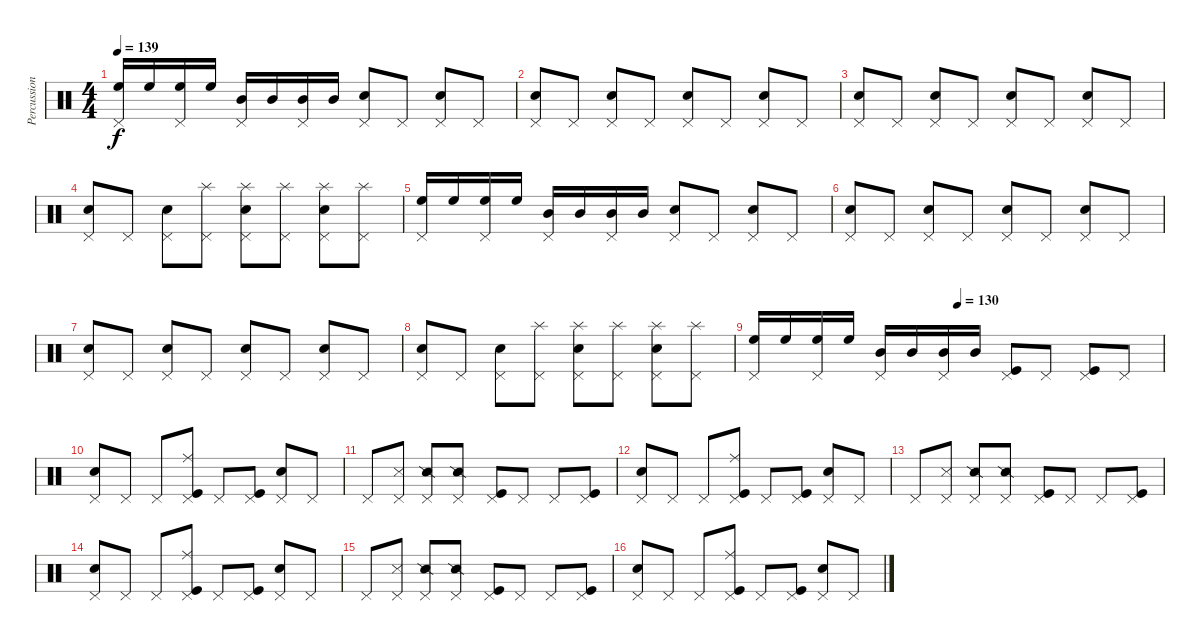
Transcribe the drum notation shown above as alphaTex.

\track ("Percussion" "Percussion") {instrument percussion}
\staff {score}
\articulation defaults
\ts (4 4)
\tempo 139
\clef neutral
\ks c
("High Floor Tom (hit)" "Pedal Hi-Hat (hit)").16{dy f} "High Floor Tom (hit)".16 ("High Floor Tom (hit)" "Pedal Hi-Hat (hit)").16 "High Floor Tom (hit)".16 ("Mid Tom (hit)" "Pedal Hi-Hat (hit)").16 "Mid Tom (hit)".16 ("Mid Tom (hit)" "Pedal Hi-Hat (hit)").16 "Mid Tom (hit)".16 ("Electric Snare (hit)" "Pedal Hi-Hat (hit)").8 "Pedal Hi-Hat (hit)".8 ("Electric Snare (hit)" "Pedal Hi-Hat (hit)").8 "Pedal Hi-Hat (hit)".8 |
("Electric Snare (hit)" "Pedal Hi-Hat (hit)").8 "Pedal Hi-Hat (hit)".8 ("Electric Snare (hit)" "Pedal Hi-Hat (hit)").8 "Pedal Hi-Hat (hit)".8 ("Electric Snare (hit)" "Pedal Hi-Hat (hit)").8 "Pedal Hi-Hat (hit)".8 ("Electric Snare (hit)" "Pedal Hi-Hat (hit)").8 "Pedal Hi-Hat (hit)".8 |
("Electric Snare (hit)" "Pedal Hi-Hat (hit)").8 "Pedal Hi-Hat (hit)".8 ("Electric Snare (hit)" "Pedal Hi-Hat (hit)").8 "Pedal Hi-Hat (hit)".8 ("Electric Snare (hit)" "Pedal Hi-Hat (hit)").8 "Pedal Hi-Hat (hit)".8 ("Electric Snare (hit)" "Pedal Hi-Hat (hit)").8 "Pedal Hi-Hat (hit)".8 |
("Electric Snare (hit)" "Pedal Hi-Hat (hit)").8 "Pedal Hi-Hat (hit)".8 ("Electric Snare (hit)" "Pedal Hi-Hat (hit)").8 ("Splash (hit)" "Pedal Hi-Hat (hit)").8 ("Splash (hit)" "Electric Snare (hit)" "Pedal Hi-Hat (hit)").8 ("Splash (hit)" "Pedal Hi-Hat (hit)").8 ("Splash (hit)" "Electric Snare (hit)" "Pedal Hi-Hat (hit)").8 ("Splash (hit)" "Pedal Hi-Hat (hit)").8 |
("High Floor Tom (hit)" "Pedal Hi-Hat (hit)").16 "High Floor Tom (hit)".16 ("High Floor Tom (hit)" "Pedal Hi-Hat (hit)").16 "High Floor Tom (hit)".16 ("Mid Tom (hit)" "Pedal Hi-Hat (hit)").16 "Mid Tom (hit)".16 ("Mid Tom (hit)" "Pedal Hi-Hat (hit)").16 "Mid Tom (hit)".16 ("Electric Snare (hit)" "Pedal Hi-Hat (hit)").8 "Pedal Hi-Hat (hit)".8 ("Electric Snare (hit)" "Pedal Hi-Hat (hit)").8 "Pedal Hi-Hat (hit)".8 |
("Electric Snare (hit)" "Pedal Hi-Hat (hit)").8 "Pedal Hi-Hat (hit)".8 ("Electric Snare (hit)" "Pedal Hi-Hat (hit)").8 "Pedal Hi-Hat (hit)".8 ("Electric Snare (hit)" "Pedal Hi-Hat (hit)").8 "Pedal Hi-Hat (hit)".8 ("Electric Snare (hit)" "Pedal Hi-Hat (hit)").8 "Pedal Hi-Hat (hit)".8 |
("Electric Snare (hit)" "Pedal Hi-Hat (hit)").8 "Pedal Hi-Hat (hit)".8 ("Electric Snare (hit)" "Pedal Hi-Hat (hit)").8 "Pedal Hi-Hat (hit)".8 ("Electric Snare (hit)" "Pedal Hi-Hat (hit)").8 "Pedal Hi-Hat (hit)".8 ("Electric Snare (hit)" "Pedal Hi-Hat (hit)").8 "Pedal Hi-Hat (hit)".8 |
("Electric Snare (hit)" "Pedal Hi-Hat (hit)").8 "Pedal Hi-Hat (hit)".8 ("Electric Snare (hit)" "Pedal Hi-Hat (hit)").8 ("Splash (hit)" "Pedal Hi-Hat (hit)").8 ("Splash (hit)" "Electric Snare (hit)" "Pedal Hi-Hat (hit)").8 ("Splash (hit)" "Pedal Hi-Hat (hit)").8 ("Splash (hit)" "Electric Snare (hit)" "Pedal Hi-Hat (hit)").8 ("Splash (hit)" "Pedal Hi-Hat (hit)").8 |
\tempo (130 0.5)
("High Floor Tom (hit)" "Pedal Hi-Hat (hit)").16 "High Floor Tom (hit)".16 ("High Floor Tom (hit)" "Pedal Hi-Hat (hit)").16 "High Floor Tom (hit)".16 ("Mid Tom (hit)" "Pedal Hi-Hat (hit)").16 "Mid Tom (hit)".16 ("Mid Tom (hit)" "Pedal Hi-Hat (hit)").16 "Mid Tom (hit)".16 ("Kick (hit)" "Pedal Hi-Hat (hit)").8 "Pedal Hi-Hat (hit)".8 ("Kick (hit)" "Pedal Hi-Hat (hit)").8 "Pedal Hi-Hat (hit)".8 |
("Electric Snare (hit)" "Pedal Hi-Hat (hit)").8 "Pedal Hi-Hat (hit)".8 "Pedal Hi-Hat (hit)".8 ("Ride (middle)" "Kick (hit)" "Pedal Hi-Hat (hit)").8 "Pedal Hi-Hat (hit)".8 ("Kick (hit)" "Pedal Hi-Hat (hit)").8 ("Electric Snare (hit)" "Pedal Hi-Hat (hit)").8 "Pedal Hi-Hat (hit)".8 |
"Pedal Hi-Hat (hit)".8 ("Snare (side stick) 3" "Pedal Hi-Hat (hit)").8 ("Snare (side stick) 2" "Pedal Hi-Hat (hit)").8 ("Snare (side stick) 2" "Pedal Hi-Hat (hit)").8 ("Kick (hit)" "Pedal Hi-Hat (hit)").8 "Pedal Hi-Hat (hit)".8 "Pedal Hi-Hat (hit)".8 ("Kick (hit)" "Pedal Hi-Hat (hit)").8 |
("Electric Snare (hit)" "Pedal Hi-Hat (hit)").8 "Pedal Hi-Hat (hit)".8 "Pedal Hi-Hat (hit)".8 ("Ride (middle)" "Kick (hit)" "Pedal Hi-Hat (hit)").8 "Pedal Hi-Hat (hit)".8 ("Kick (hit)" "Pedal Hi-Hat (hit)").8 ("Electric Snare (hit)" "Pedal Hi-Hat (hit)").8 "Pedal Hi-Hat (hit)".8 |
"Pedal Hi-Hat (hit)".8 ("Snare (side stick) 3" "Pedal Hi-Hat (hit)").8 ("Snare (side stick) 2" "Pedal Hi-Hat (hit)").8 ("Snare (side stick) 2" "Pedal Hi-Hat (hit)").8 ("Kick (hit)" "Pedal Hi-Hat (hit)").8 "Pedal Hi-Hat (hit)".8 "Pedal Hi-Hat (hit)".8 ("Kick (hit)" "Pedal Hi-Hat (hit)").8 |
("Electric Snare (hit)" "Pedal Hi-Hat (hit)").8 "Pedal Hi-Hat (hit)".8 "Pedal Hi-Hat (hit)".8 ("Ride (middle)" "Kick (hit)" "Pedal Hi-Hat (hit)").8 "Pedal Hi-Hat (hit)".8 ("Kick (hit)" "Pedal Hi-Hat (hit)").8 ("Electric Snare (hit)" "Pedal Hi-Hat (hit)").8 "Pedal Hi-Hat (hit)".8 |
"Pedal Hi-Hat (hit)".8 ("Snare (side stick) 3" "Pedal Hi-Hat (hit)").8 ("Snare (side stick) 2" "Pedal Hi-Hat (hit)").8 ("Snare (side stick) 2" "Pedal Hi-Hat (hit)").8 ("Kick (hit)" "Pedal Hi-Hat (hit)").8 "Pedal Hi-Hat (hit)".8 "Pedal Hi-Hat (hit)".8 ("Kick (hit)" "Pedal Hi-Hat (hit)").8 |
("Electric Snare (hit)" "Pedal Hi-Hat (hit)").8 "Pedal Hi-Hat (hit)".8 "Pedal Hi-Hat (hit)".8 ("Ride (middle)" "Kick (hit)" "Pedal Hi-Hat (hit)").8 "Pedal Hi-Hat (hit)".8 ("Kick (hit)" "Pedal Hi-Hat (hit)").8 ("Electric Snare (hit)" "Pedal Hi-Hat (hit)").8 "Pedal Hi-Hat (hit)".8
